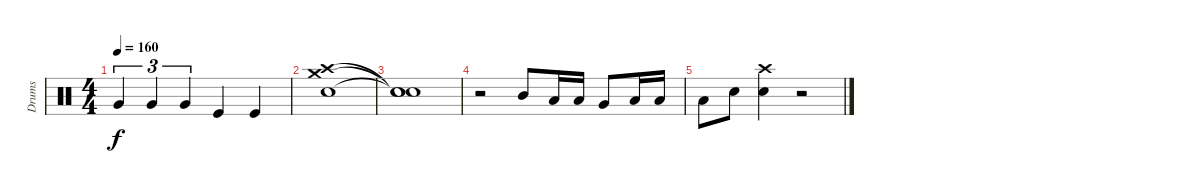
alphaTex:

\track ("Drums" "Drums") {instrument percussion}
\staff {score}
\articulation defaults
\ts (4 4)
\tempo 160
\clef neutral
\ks c "Very Low Tom (hit)".4{tu (3 2) dy f} "Very Low Tom (hit)".4{tu (3 2)} "Very Low Tom (hit)".4{tu (3 2)} "Kick (hit)".4 "Kick (hit)".4
|
("Crash medium (hit)" "Crash high (hit)" "Electric Snare (hit)").1 |
("Snare (hit)"{t} "Snare (hit)"{t} "Snare (hit)"{t}).1 |
r.2 "Mid Tom (hit)".8 "Low Tom (hit)".16 "Low Tom (hit)".16 "Very Low Tom (hit)".8 "Low Floor Tom (hit)".16 "Low Floor Tom (hit)".16 |
"Low Floor Tom (hit)".8 "Snare (hit)".8 ("Crash high (hit)" "Electric Snare (hit)").4 r.2
